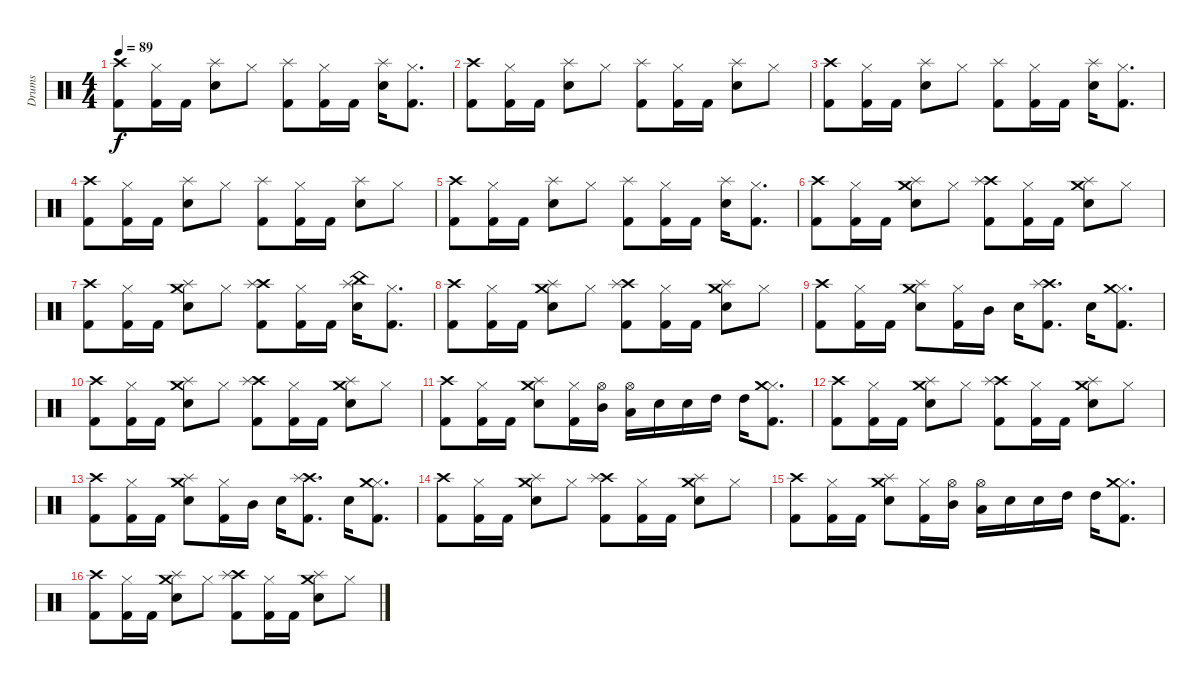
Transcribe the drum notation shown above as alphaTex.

\track ("Drums" "Drums") {instrument percussion}
\staff {score}
\articulation defaults
\ts (4 4)
\tempo 89
\clef neutral
\ks c
("Kick (hit) 2" "Crash high (hit)").8{dy f} ("Kick (hit) 2" "Hi-Hat (closed)").16 "Kick (hit) 2".16 ("Snare (hit) 2" "Splash (hit)").8 "Hi-Hat (closed)".8 ("Kick (hit) 2" "Splash (hit)").8 ("Kick (hit) 2" "Hi-Hat (closed)").16 "Kick (hit) 2".16 ("Snare (hit) 2" "Splash (hit)").16 ("Kick (hit) 2" "Hi-Hat (closed)").8{d} |
("Kick (hit) 2" "Crash high (hit)").8 ("Kick (hit) 2" "Hi-Hat (closed)").16 "Kick (hit) 2".16 ("Snare (hit) 2" "Splash (hit)").8 "Hi-Hat (closed)".8 ("Kick (hit) 2" "Splash (hit)").8 ("Kick (hit) 2" "Hi-Hat (closed)").16 "Kick (hit) 2".16 ("Snare (hit) 2" "Splash (hit)").8 "Hi-Hat (closed)".8 |
("Kick (hit) 2" "Crash high (hit)").8 ("Kick (hit) 2" "Hi-Hat (closed)").16 "Kick (hit) 2".16 ("Snare (hit) 2" "Splash (hit)").8 "Hi-Hat (closed)".8 ("Kick (hit) 2" "Splash (hit)").8 ("Kick (hit) 2" "Hi-Hat (closed)").16 "Kick (hit) 2".16 ("Snare (hit) 2" "Splash (hit)").16 ("Kick (hit) 2" "Hi-Hat (closed)").8{d} |
("Kick (hit) 2" "Crash high (hit)").8 ("Kick (hit) 2" "Hi-Hat (closed)").16 "Kick (hit) 2".16 ("Snare (hit) 2" "Splash (hit)").8 "Hi-Hat (closed)".8 ("Kick (hit) 2" "Splash (hit)").8 ("Kick (hit) 2" "Hi-Hat (closed)").16 "Kick (hit) 2".16 ("Snare (hit) 2" "Splash (hit)").8 "Hi-Hat (closed)".8 |
("Kick (hit) 2" "Crash high (hit)").8 ("Kick (hit) 2" "Hi-Hat (closed)").16 "Kick (hit) 2".16 ("Snare (hit) 2" "Splash (hit)").8 "Hi-Hat (closed)".8 ("Kick (hit) 2" "Splash (hit)").8 ("Kick (hit) 2" "Hi-Hat (closed)").16 "Kick (hit) 2".16 ("Snare (hit) 2" "Splash (hit)").16 ("Kick (hit) 2" "Hi-Hat (closed)").8{d} |
("Kick (hit) 2" "Crash high (hit)").8 ("Kick (hit) 2" "Hi-Hat (closed)").16 "Kick (hit) 2".16 ("Snare (hit) 2" "Crash medium (hit)" "Splash (hit)").8 "Hi-Hat (closed)".8 ("Kick (hit) 2" "Crash high (hit)" "Splash (hit)").8 ("Kick (hit) 2" "Hi-Hat (closed)").16 "Kick (hit) 2".16 ("Snare (hit) 2" "Crash medium (hit)" "Splash (hit)").8 "Hi-Hat (closed)".8 |
("Kick (hit) 2" "Crash high (hit)").8 ("Kick (hit) 2" "Hi-Hat (closed)").16 "Kick (hit) 2".16 ("Snare (hit) 2" "Crash medium (hit)" "Splash (hit)").8 "Hi-Hat (closed)".8 ("Kick (hit) 2" "Crash high (hit)" "Splash (hit)").8 ("Kick (hit) 2" "Hi-Hat (closed)").16 "Kick (hit) 2".16 ("Snare (hit) 2" "China (hit)" "Splash (hit)").16 ("Kick (hit) 2" "Hi-Hat (closed)").8{d} |
("Kick (hit) 2" "Crash high (hit)").8 ("Kick (hit) 2" "Hi-Hat (closed)").16 "Kick (hit) 2".16 ("Snare (hit) 2" "Crash medium (hit)" "Splash (hit)").8 "Hi-Hat (closed)".8 ("Kick (hit) 2" "Crash high (hit)" "Splash (hit)").8 ("Kick (hit) 2" "Hi-Hat (closed)").16 "Kick (hit) 2".16 ("Snare (hit) 2" "Crash medium (hit)" "Splash (hit)").8 "Hi-Hat (closed)".8 |
("Kick (hit) 2" "Crash high (hit)").8 ("Kick (hit) 2" "Hi-Hat (closed)").16 "Kick (hit) 2".16 ("Snare (hit) 2" "Crash medium (hit)" "Splash (hit)").8 ("Kick (hit) 2" "Hi-Hat (closed)").16 "Mid Tom (hit)".16 "Snare (hit) 2".16 ("Kick (hit) 2" "Crash high (hit)" "Splash (hit)").8{d} "Snare (hit) 2".16 ("Kick (hit) 2" "Hi-Hat (closed)" "Crash medium (hit)").8{d} |
("Kick (hit) 2" "Crash high (hit)").8 ("Kick (hit) 2" "Hi-Hat (closed)").16 "Kick (hit) 2".16 ("Snare (hit) 2" "Crash medium (hit)" "Splash (hit)").8 "Hi-Hat (closed)".8 ("Kick (hit) 2" "Crash high (hit)" "Splash (hit)").8 ("Kick (hit) 2" "Hi-Hat (closed)").16 "Kick (hit) 2".16 ("Snare (hit) 2" "Crash medium (hit)" "Splash (hit)").8 "Hi-Hat (closed)".8 |
("Kick (hit) 2" "Crash high (hit)").8 ("Kick (hit) 2" "Hi-Hat (closed)").16 "Kick (hit) 2".16 ("Snare (hit) 2" "Crash medium (hit)" "Splash (hit)").8 ("Kick (hit) 2" "Hi-Hat (closed)").16 ("Mid Tom (hit)" "Hi-Hat (open)").16 ("Low Tom (hit)" "Hi-Hat (open)").16 "Snare (hit) 2".16 "Snare (hit) 2".16 "High Tom (hit)".16 "High Tom (hit)".16 ("Kick (hit) 2" "Hi-Hat (closed)" "Crash medium (hit)").8{d} |
("Kick (hit) 2" "Crash high (hit)").8 ("Kick (hit) 2" "Hi-Hat (closed)").16 "Kick (hit) 2".16 ("Snare (hit) 2" "Crash medium (hit)" "Splash (hit)").8 "Hi-Hat (closed)".8 ("Kick (hit) 2" "Crash high (hit)" "Splash (hit)").8 ("Kick (hit) 2" "Hi-Hat (closed)").16 "Kick (hit) 2".16 ("Snare (hit) 2" "Crash medium (hit)" "Splash (hit)").8 "Hi-Hat (closed)".8 |
("Kick (hit) 2" "Crash high (hit)").8 ("Kick (hit) 2" "Hi-Hat (closed)").16 "Kick (hit) 2".16 ("Snare (hit) 2" "Crash medium (hit)" "Splash (hit)").8 ("Kick (hit) 2" "Hi-Hat (closed)").16 "Mid Tom (hit)".16 "Snare (hit) 2".16 ("Kick (hit) 2" "Crash high (hit)" "Splash (hit)").8{d} "Snare (hit) 2".16 ("Kick (hit) 2" "Hi-Hat (closed)" "Crash medium (hit)").8{d} |
("Kick (hit) 2" "Crash high (hit)").8 ("Kick (hit) 2" "Hi-Hat (closed)").16 "Kick (hit) 2".16 ("Snare (hit) 2" "Crash medium (hit)" "Splash (hit)").8 "Hi-Hat (closed)".8 ("Kick (hit) 2" "Crash high (hit)" "Splash (hit)").8 ("Kick (hit) 2" "Hi-Hat (closed)").16 "Kick (hit) 2".16 ("Snare (hit) 2" "Crash medium (hit)" "Splash (hit)").8 "Hi-Hat (closed)".8 |
("Kick (hit) 2" "Crash high (hit)").8 ("Kick (hit) 2" "Hi-Hat (closed)").16 "Kick (hit) 2".16 ("Snare (hit) 2" "Crash medium (hit)" "Splash (hit)").8 ("Kick (hit) 2" "Hi-Hat (closed)").16 ("Mid Tom (hit)" "Hi-Hat (open)").16 ("Low Tom (hit)" "Hi-Hat (open)").16 "Snare (hit) 2".16 "Snare (hit) 2".16 "High Tom (hit)".16 "High Tom (hit)".16 ("Kick (hit) 2" "Hi-Hat (closed)" "Crash medium (hit)").8{d} |
("Kick (hit) 2" "Crash high (hit)").8 ("Kick (hit) 2" "Hi-Hat (closed)").16 "Kick (hit) 2".16 ("Snare (hit) 2" "Crash medium (hit)" "Splash (hit)").8 "Hi-Hat (closed)".8 ("Kick (hit) 2" "Crash high (hit)" "Splash (hit)").8 ("Kick (hit) 2" "Hi-Hat (closed)").16 "Kick (hit) 2".16 ("Snare (hit) 2" "Crash medium (hit)" "Splash (hit)").8 "Hi-Hat (closed)".8
